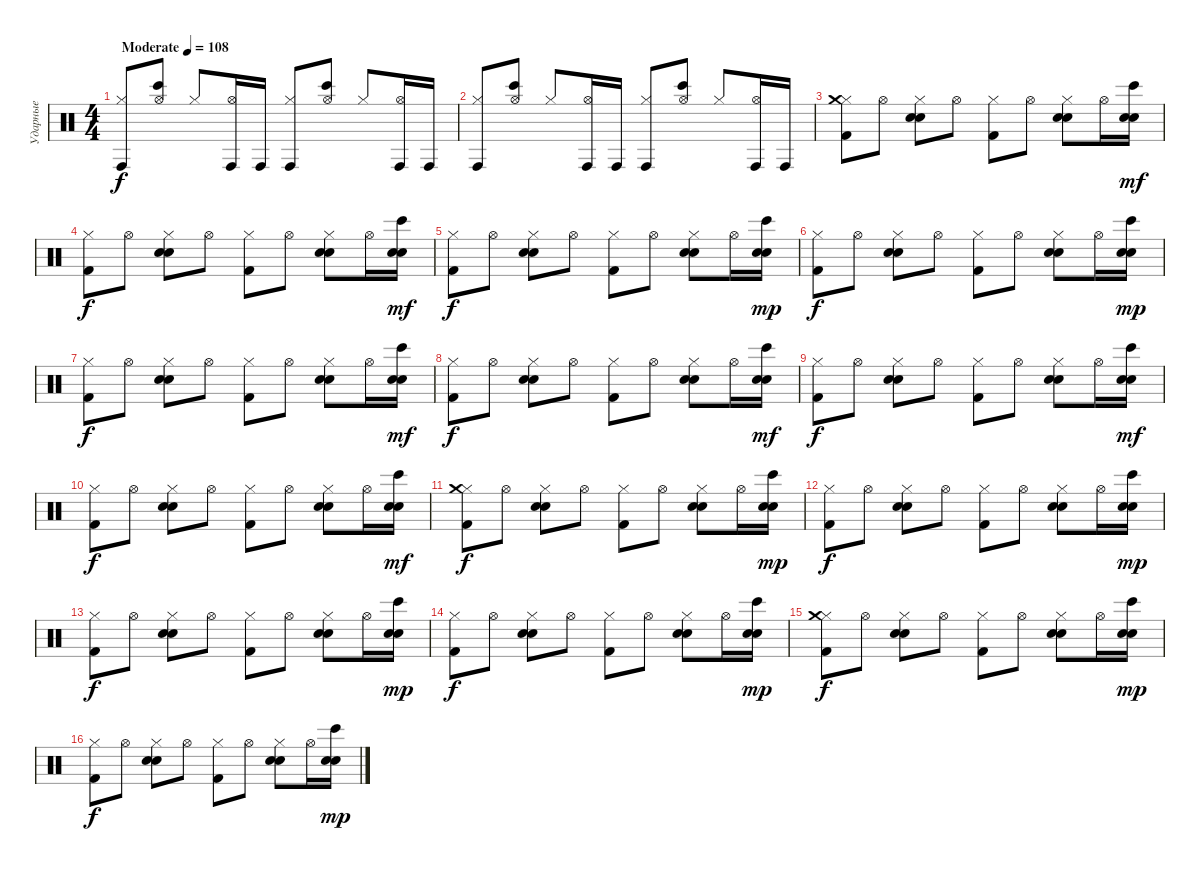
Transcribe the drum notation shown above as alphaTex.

\track ("Ударные" "Ударные") {instrument percussion}
\staff {score}
\articulation defaults
\ts (4 4)
\tempo (108 "Moderate")
\clef neutral
\ks c
("Hi-Hat (closed)" "Conga high (hit)").8{dy f} ("Hi-Hat (open)" "Bongo High (hit)").8 "Hi-Hat (closed)".8 ("Hi-Hat (open)" "Conga high (hit)").16 "Conga high (hit)".16 ("Conga high (hit)" "Hi-Hat (closed)").8 ("Bongo High (hit)" "Hi-Hat (open)").8 "Hi-Hat (closed)".8 ("Conga high (hit)" "Hi-Hat (open)").16 "Conga high (hit)".16 |
("Hi-Hat (closed)" "Conga high (hit)").8 ("Hi-Hat (open)" "Bongo High (hit)").8 "Hi-Hat (closed)".8 ("Hi-Hat (open)" "Conga high (hit)").16 "Conga high (hit)".16 ("Conga high (hit)" "Hi-Hat (closed)").8 ("Bongo High (hit)" "Hi-Hat (open)").8 "Hi-Hat (closed)".8 ("Conga high (hit)" "Hi-Hat (open)").16 "Conga high (hit)".16 |
("Hi-Hat (closed)" "Kick (hit) 2" "Crash medium (hit)").8 "Hi-Hat (open)".8 ("Hi-Hat (closed)" "Electric Snare (hit)" "Hand Clap (hit)").8 "Hi-Hat (open)".8 ("Hi-Hat (closed)" "Kick (hit) 2").8 "Hi-Hat (open)".8 ("Hi-Hat (closed)" "Electric Snare (hit)" "Hand Clap (hit)").8 "Hi-Hat (open)".16 ("Bongo High (hit)" "Electric Snare (hit)" "Hand Clap (hit)").16{dy mf} |
("Hi-Hat (closed)" "Kick (hit) 2").8{dy f} "Hi-Hat (open)".8 ("Hi-Hat (closed)" "Electric Snare (hit)" "Hand Clap (hit)").8 "Hi-Hat (open)".8 ("Hi-Hat (closed)" "Kick (hit) 2").8 "Hi-Hat (open)".8 ("Hi-Hat (closed)" "Electric Snare (hit)" "Hand Clap (hit)").8 "Hi-Hat (open)".16 ("Bongo High (hit)" "Electric Snare (hit)" "Hand Clap (hit)").16{dy mf} |
("Hi-Hat (closed)" "Kick (hit) 2").8{dy f} "Hi-Hat (open)".8 ("Hi-Hat (closed)" "Electric Snare (hit)" "Hand Clap (hit)").8 "Hi-Hat (open)".8 ("Hi-Hat (closed)" "Kick (hit) 2").8 "Hi-Hat (open)".8 ("Hi-Hat (closed)" "Electric Snare (hit)" "Hand Clap (hit)").8 "Hi-Hat (open)".16 ("Bongo High (hit)" "Electric Snare (hit)" "Hand Clap (hit)").16{dy mp} |
("Hi-Hat (closed)" "Kick (hit) 2").8{dy f} "Hi-Hat (open)".8 ("Hi-Hat (closed)" "Electric Snare (hit)" "Hand Clap (hit)").8 "Hi-Hat (open)".8 ("Hi-Hat (closed)" "Kick (hit) 2").8 "Hi-Hat (open)".8 ("Hi-Hat (closed)" "Electric Snare (hit)" "Hand Clap (hit)").8 "Hi-Hat (open)".16 ("Bongo High (hit)" "Electric Snare (hit)" "Hand Clap (hit)").16{dy mp} |
("Hi-Hat (closed)" "Kick (hit) 2").8{dy f} "Hi-Hat (open)".8 ("Hi-Hat (closed)" "Electric Snare (hit)" "Hand Clap (hit)").8 "Hi-Hat (open)".8 ("Hi-Hat (closed)" "Kick (hit) 2").8 "Hi-Hat (open)".8 ("Hi-Hat (closed)" "Electric Snare (hit)" "Hand Clap (hit)").8 "Hi-Hat (open)".16 ("Bongo High (hit)" "Electric Snare (hit)" "Hand Clap (hit)").16{dy mf} |
("Hi-Hat (closed)" "Kick (hit) 2").8{dy f} "Hi-Hat (open)".8 ("Hi-Hat (closed)" "Electric Snare (hit)" "Hand Clap (hit)").8 "Hi-Hat (open)".8 ("Hi-Hat (closed)" "Kick (hit) 2").8 "Hi-Hat (open)".8 ("Hi-Hat (closed)" "Electric Snare (hit)" "Hand Clap (hit)").8 "Hi-Hat (open)".16 ("Bongo High (hit)" "Electric Snare (hit)" "Hand Clap (hit)").16{dy mf} |
("Hi-Hat (closed)" "Kick (hit) 2").8{dy f} "Hi-Hat (open)".8 ("Hi-Hat (closed)" "Electric Snare (hit)" "Hand Clap (hit)").8 "Hi-Hat (open)".8 ("Hi-Hat (closed)" "Kick (hit) 2").8 "Hi-Hat (open)".8 ("Hi-Hat (closed)" "Electric Snare (hit)" "Hand Clap (hit)").8 "Hi-Hat (open)".16 ("Bongo High (hit)" "Electric Snare (hit)" "Hand Clap (hit)").16{dy mf} |
("Hi-Hat (closed)" "Kick (hit) 2").8{dy f} "Hi-Hat (open)".8 ("Hi-Hat (closed)" "Electric Snare (hit)" "Hand Clap (hit)").8 "Hi-Hat (open)".8 ("Hi-Hat (closed)" "Kick (hit) 2").8 "Hi-Hat (open)".8 ("Hi-Hat (closed)" "Electric Snare (hit)" "Hand Clap (hit)").8 "Hi-Hat (open)".16 ("Bongo High (hit)" "Electric Snare (hit)" "Hand Clap (hit)").16{dy mf} |
("Hi-Hat (closed)" "Kick (hit) 2" "Crash medium (hit)").8{dy f} "Hi-Hat (open)".8 ("Hi-Hat (closed)" "Electric Snare (hit)" "Hand Clap (hit)").8 "Hi-Hat (open)".8 ("Hi-Hat (closed)" "Kick (hit) 2").8 "Hi-Hat (open)".8 ("Hi-Hat (closed)" "Electric Snare (hit)" "Hand Clap (hit)").8 "Hi-Hat (open)".16 ("Bongo High (hit)" "Electric Snare (hit)" "Hand Clap (hit)").16{dy mp} |
("Hi-Hat (closed)" "Kick (hit) 2").8{dy f} "Hi-Hat (open)".8 ("Hi-Hat (closed)" "Electric Snare (hit)" "Hand Clap (hit)").8 "Hi-Hat (open)".8 ("Hi-Hat (closed)" "Kick (hit) 2").8 "Hi-Hat (open)".8 ("Hi-Hat (closed)" "Electric Snare (hit)" "Hand Clap (hit)").8 "Hi-Hat (open)".16 ("Bongo High (hit)" "Electric Snare (hit)" "Hand Clap (hit)").16{dy mp} |
("Hi-Hat (closed)" "Kick (hit) 2").8{dy f} "Hi-Hat (open)".8 ("Hi-Hat (closed)" "Electric Snare (hit)" "Hand Clap (hit)").8 "Hi-Hat (open)".8 ("Hi-Hat (closed)" "Kick (hit) 2").8 "Hi-Hat (open)".8 ("Hi-Hat (closed)" "Electric Snare (hit)" "Hand Clap (hit)").8 "Hi-Hat (open)".16 ("Bongo High (hit)" "Electric Snare (hit)" "Hand Clap (hit)").16{dy mp} |
("Hi-Hat (closed)" "Kick (hit) 2").8{dy f} "Hi-Hat (open)".8 ("Hi-Hat (closed)" "Electric Snare (hit)" "Hand Clap (hit)").8 "Hi-Hat (open)".8 ("Hi-Hat (closed)" "Kick (hit) 2").8 "Hi-Hat (open)".8 ("Hi-Hat (closed)" "Electric Snare (hit)" "Hand Clap (hit)").8 "Hi-Hat (open)".16 ("Bongo High (hit)" "Electric Snare (hit)" "Hand Clap (hit)").16{dy mp} |
("Hi-Hat (closed)" "Kick (hit) 2" "Crash medium (hit)").8{dy f} "Hi-Hat (open)".8 ("Hi-Hat (closed)" "Electric Snare (hit)" "Hand Clap (hit)").8 "Hi-Hat (open)".8 ("Hi-Hat (closed)" "Kick (hit) 2").8 "Hi-Hat (open)".8 ("Hi-Hat (closed)" "Electric Snare (hit)" "Hand Clap (hit)").8 "Hi-Hat (open)".16 ("Bongo High (hit)" "Electric Snare (hit)" "Hand Clap (hit)").16{dy mp} |
("Hi-Hat (closed)" "Kick (hit) 2").8{dy f} "Hi-Hat (open)".8 ("Hi-Hat (closed)" "Electric Snare (hit)" "Hand Clap (hit)").8 "Hi-Hat (open)".8 ("Hi-Hat (closed)" "Kick (hit) 2").8 "Hi-Hat (open)".8 ("Hi-Hat (closed)" "Electric Snare (hit)" "Hand Clap (hit)").8 "Hi-Hat (open)".16 ("Bongo High (hit)" "Electric Snare (hit)" "Hand Clap (hit)").16{dy mp}
